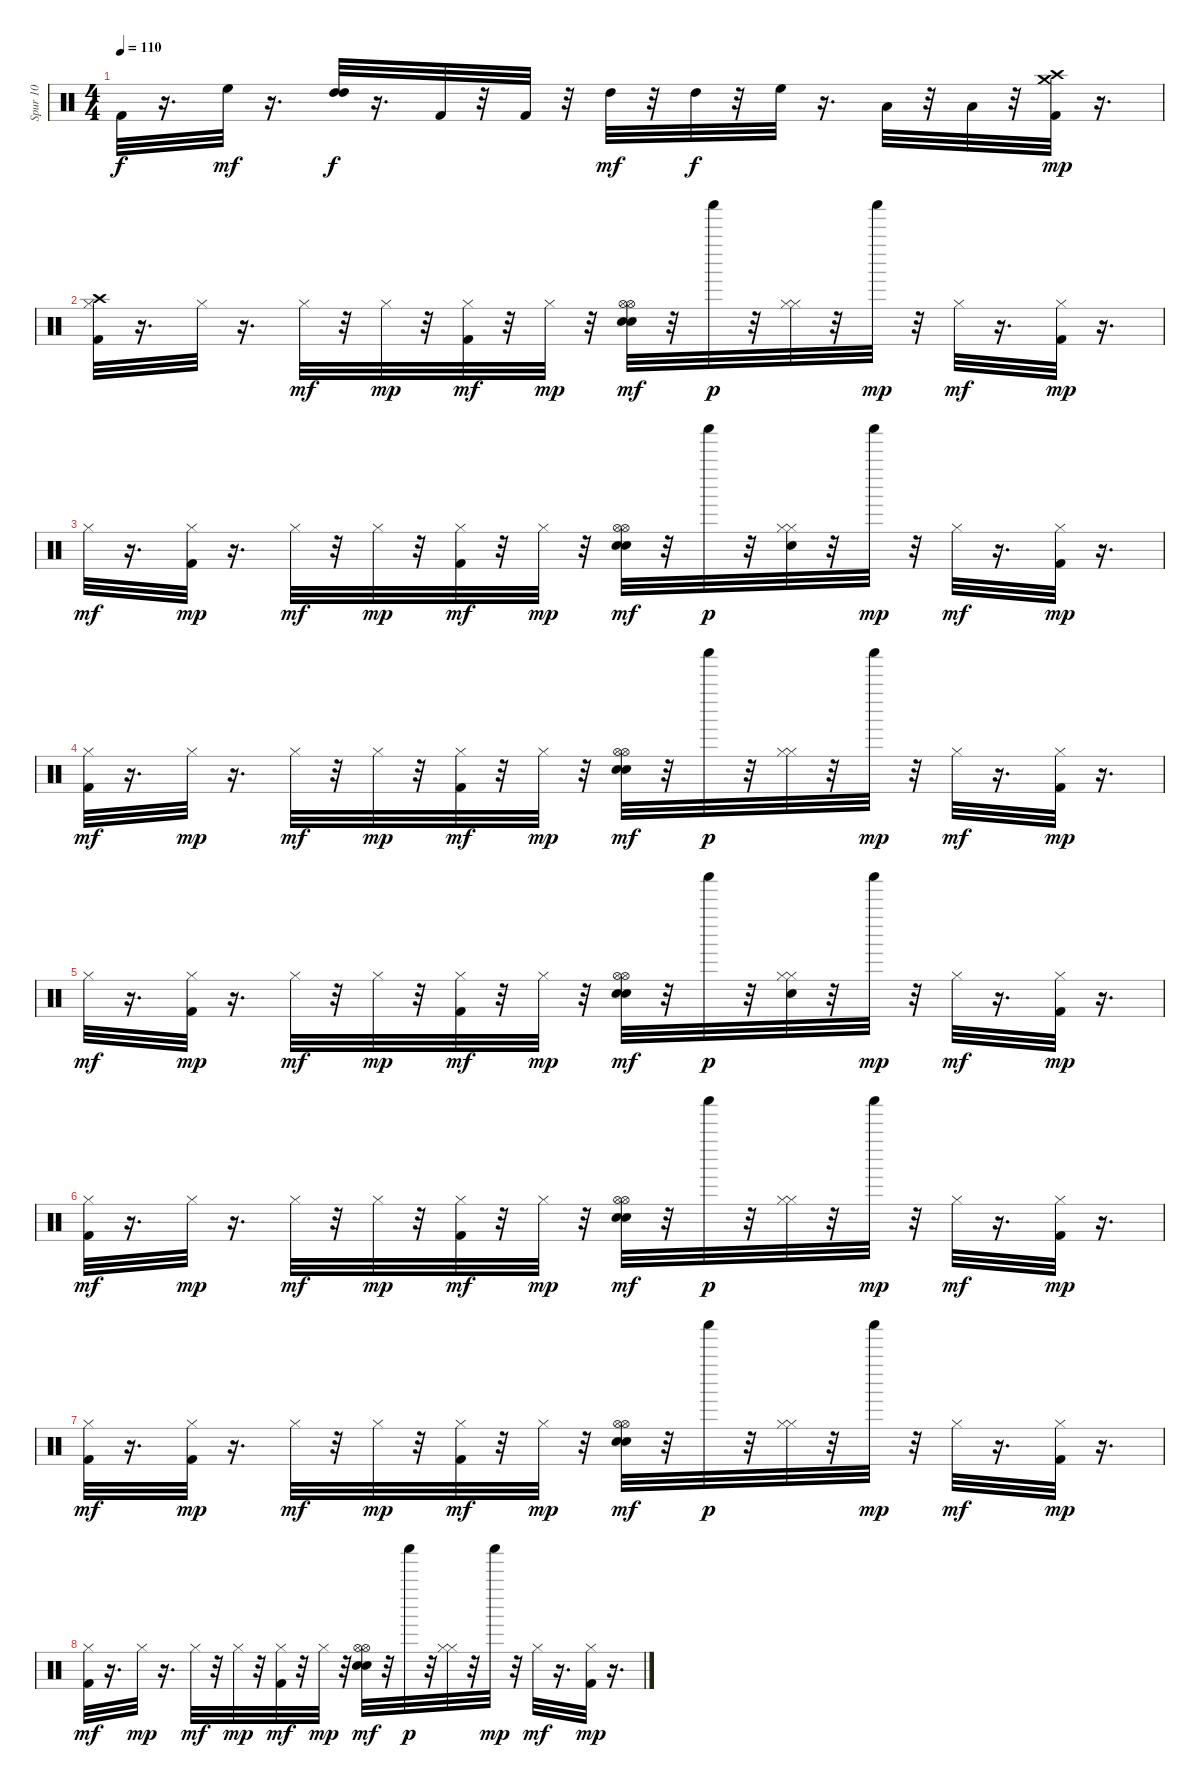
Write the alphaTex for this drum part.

\track ("Spur 10" "Spur 10") {instrument percussion}
\staff {score}
\articulation defaults
\ts (4 4)
\tempo 110
\clef neutral
\ks c "Kick (hit) 2".32{dy f}
r.16{d} "High Floor Tom (hit)".32{dy mf} r.16{d} ("High Tom (hit)" "High Tom (hit)").32{dy f} r.16{d} "Kick (hit) 2".32 r.32 "Kick (hit) 2".32 r.32 "High Tom (hit)".32{dy mf} r.32 "High Tom (hit)".32{dy f} r.32 "High Floor Tom (hit)".32 r.16{d} "Low Tom (hit)".32 r.32 "Low Floor Tom (hit)".32 r.32 ("Kick (hit) 2" "Crash medium (hit)" "Crash high (hit)").32{dy mp} r.16{d} |
("Kick (hit) 2" "Hi-Hat (closed)" "Crash high (hit)").32 r.16{d} "Hi-Hat (closed)".32 r.16{d} "Hi-Hat (closed)".32{dy mf} r.32 "Hi-Hat (closed)".32{dy mp} r.32 ("Kick (hit) 2" "Hi-Hat (closed)").32{dy mf} r.32 "Hi-Hat (closed)".32{dy mp} r.32 ("Hi-Hat (open)" "Snare (hit) 2" "Electric Snare (hit)" "Hi-Hat (open)").32{dy mf} r.32 "Shaker (hit)".32{dy p} r.32 ("Hi-Hat (closed)" "Hi-Hat (closed)").32 r.32 "Shaker (hit)".32{dy mp} r.32 "Hi-Hat (closed)".32{dy mf} r.16{d} ("Kick (hit) 2" "Hi-Hat (closed)").32{dy mp} r.16{d} |
"Hi-Hat (closed)".32{dy mf} r.16{d} ("Kick (hit) 2" "Hi-Hat (closed)").32{dy mp} r.16{d} "Hi-Hat (closed)".32{dy mf} r.32 "Hi-Hat (closed)".32{dy mp} r.32 ("Kick (hit) 2" "Hi-Hat (closed)").32{dy mf} r.32 "Hi-Hat (closed)".32{dy mp} r.32 ("Hi-Hat (open)" "Snare (hit) 2" "Electric Snare (hit)" "Hi-Hat (open)").32{dy mf} r.32 "Shaker (hit)".32{dy p} r.32 ("Snare (hit) 2" "Hi-Hat (closed)" "Hi-Hat (closed)").32 r.32 "Shaker (hit)".32{dy mp} r.32 "Hi-Hat (closed)".32{dy mf} r.16{d} ("Kick (hit) 2" "Hi-Hat (closed)").32{dy mp} r.16{d} |
("Kick (hit) 2" "Hi-Hat (closed)").32{dy mf} r.16{d} "Hi-Hat (closed)".32{dy mp} r.16{d} "Hi-Hat (closed)".32{dy mf} r.32 "Hi-Hat (closed)".32{dy mp} r.32 ("Kick (hit) 2" "Hi-Hat (closed)").32{dy mf} r.32 "Hi-Hat (closed)".32{dy mp} r.32 ("Hi-Hat (open)" "Snare (hit) 2" "Electric Snare (hit)" "Hi-Hat (open)").32{dy mf} r.32 "Shaker (hit)".32{dy p} r.32 ("Hi-Hat (closed)" "Hi-Hat (closed)").32 r.32 "Shaker (hit)".32{dy mp} r.32 "Hi-Hat (closed)".32{dy mf} r.16{d} ("Kick (hit) 2" "Hi-Hat (closed)").32{dy mp} r.16{d} |
"Hi-Hat (closed)".32{dy mf} r.16{d} ("Kick (hit) 2" "Hi-Hat (closed)").32{dy mp} r.16{d} "Hi-Hat (closed)".32{dy mf} r.32 "Hi-Hat (closed)".32{dy mp} r.32 ("Kick (hit) 2" "Hi-Hat (closed)").32{dy mf} r.32 "Hi-Hat (closed)".32{dy mp} r.32 ("Hi-Hat (open)" "Snare (hit) 2" "Electric Snare (hit)" "Hi-Hat (open)").32{dy mf} r.32 "Shaker (hit)".32{dy p} r.32 ("Snare (hit) 2" "Hi-Hat (closed)" "Hi-Hat (closed)").32 r.32 "Shaker (hit)".32{dy mp} r.32 "Hi-Hat (closed)".32{dy mf} r.16{d} ("Kick (hit) 2" "Hi-Hat (closed)").32{dy mp} r.16{d} |
("Kick (hit) 2" "Hi-Hat (closed)").32{dy mf} r.16{d} "Hi-Hat (closed)".32{dy mp} r.16{d} "Hi-Hat (closed)".32{dy mf} r.32 "Hi-Hat (closed)".32{dy mp} r.32 ("Kick (hit) 2" "Hi-Hat (closed)").32{dy mf} r.32 "Hi-Hat (closed)".32{dy mp} r.32 ("Hi-Hat (open)" "Snare (hit) 2" "Electric Snare (hit)" "Hi-Hat (open)").32{dy mf} r.32 "Shaker (hit)".32{dy p} r.32 ("Hi-Hat (closed)" "Hi-Hat (closed)").32 r.32 "Shaker (hit)".32{dy mp} r.32 "Hi-Hat (closed)".32{dy mf} r.16{d} ("Kick (hit) 2" "Hi-Hat (closed)").32{dy mp} r.16{d} |
("Kick (hit) 2" "Hi-Hat (closed)").32{dy mf} r.16{d} ("Kick (hit) 2" "Hi-Hat (closed)").32{dy mp} r.16{d} "Hi-Hat (closed)".32{dy mf} r.32 "Hi-Hat (closed)".32{dy mp} r.32 ("Kick (hit) 2" "Hi-Hat (closed)").32{dy mf} r.32 "Hi-Hat (closed)".32{dy mp} r.32 ("Hi-Hat (open)" "Snare (hit) 2" "Electric Snare (hit)" "Hi-Hat (open)").32{dy mf} r.32 "Shaker (hit)".32{dy p} r.32 ("Hi-Hat (closed)" "Hi-Hat (closed)").32 r.32 "Shaker (hit)".32{dy mp} r.32 "Hi-Hat (closed)".32{dy mf} r.16{d} ("Kick (hit) 2" "Hi-Hat (closed)").32{dy mp} r.16{d} |
("Kick (hit) 2" "Hi-Hat (closed)").32{dy mf} r.16{d} "Hi-Hat (closed)".32{dy mp} r.16{d} "Hi-Hat (closed)".32{dy mf} r.32 "Hi-Hat (closed)".32{dy mp} r.32 ("Kick (hit) 2" "Hi-Hat (closed)").32{dy mf} r.32 "Hi-Hat (closed)".32{dy mp} r.32 ("Hi-Hat (open)" "Snare (hit) 2" "Electric Snare (hit)" "Hi-Hat (open)").32{dy mf} r.32 "Shaker (hit)".32{dy p} r.32 ("Hi-Hat (closed)" "Hi-Hat (closed)").32 r.32 "Shaker (hit)".32{dy mp} r.32 "Hi-Hat (closed)".32{dy mf} r.16{d} ("Kick (hit) 2" "Hi-Hat (closed)").32{dy mp} r.16{d}
